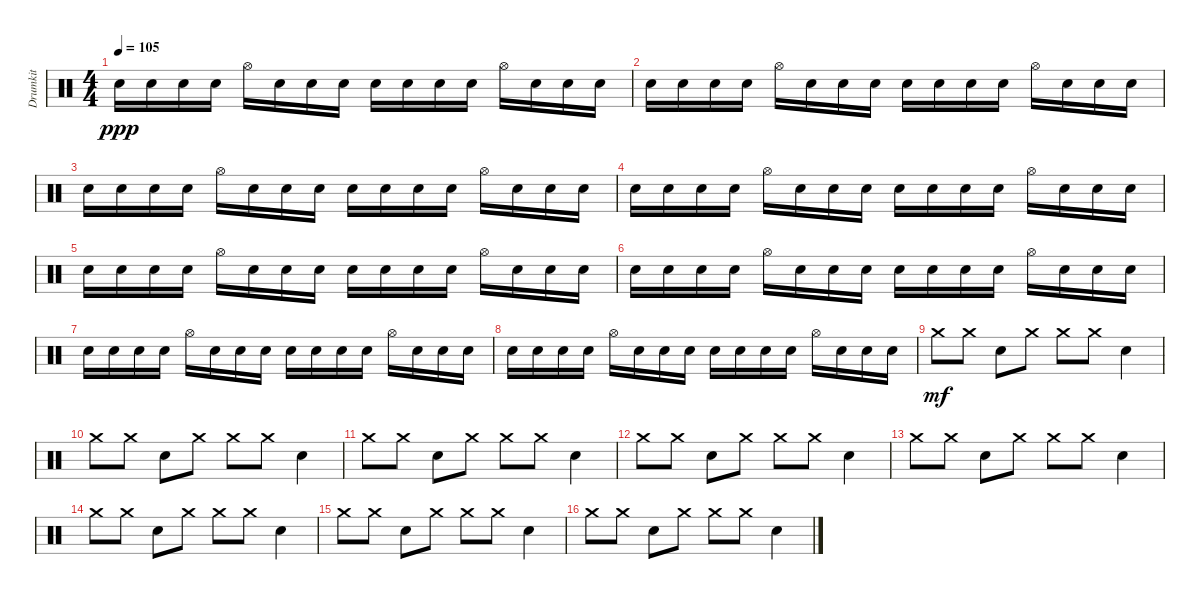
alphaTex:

\track ("Drumkit" "Drumkit") {instrument percussion}
\staff {score}
\articulation defaults
\ts (4 4)
\tempo 105
\clef neutral
\ks c "Snare (hit) 2".16{dy ppp} "Snare (hit) 2".16 "Snare (hit) 2".16 "Snare (hit) 2".16 "Hi-Hat (open)".16 "Snare (hit) 2".16 "Snare (hit) 2".16 "Snare (hit) 2".16 "Snare (hit) 2".16 "Snare (hit) 2".16 "Snare (hit) 2".16 "Snare (hit) 2".16 "Hi-Hat (open)".16 "Snare (hit) 2".16 "Snare (hit) 2".16 "Snare (hit) 2".16
|
"Snare (hit) 2".16 "Snare (hit) 2".16 "Snare (hit) 2".16 "Snare (hit) 2".16 "Hi-Hat (open)".16 "Snare (hit) 2".16 "Snare (hit) 2".16 "Snare (hit) 2".16 "Snare (hit) 2".16 "Snare (hit) 2".16 "Snare (hit) 2".16 "Snare (hit) 2".16 "Hi-Hat (open)".16 "Snare (hit) 2".16 "Snare (hit) 2".16 "Snare (hit) 2".16 |
"Snare (hit) 2".16 "Snare (hit) 2".16 "Snare (hit) 2".16 "Snare (hit) 2".16 "Hi-Hat (open)".16 "Snare (hit) 2".16 "Snare (hit) 2".16 "Snare (hit) 2".16 "Snare (hit) 2".16 "Snare (hit) 2".16 "Snare (hit) 2".16 "Snare (hit) 2".16 "Hi-Hat (open)".16 "Snare (hit) 2".16 "Snare (hit) 2".16 "Snare (hit) 2".16 |
"Snare (hit) 2".16 "Snare (hit) 2".16 "Snare (hit) 2".16 "Snare (hit) 2".16 "Hi-Hat (open)".16 "Snare (hit) 2".16 "Snare (hit) 2".16 "Snare (hit) 2".16 "Snare (hit) 2".16 "Snare (hit) 2".16 "Snare (hit) 2".16 "Snare (hit) 2".16 "Hi-Hat (open)".16 "Snare (hit) 2".16 "Snare (hit) 2".16 "Snare (hit) 2".16 |
"Snare (hit) 2".16 "Snare (hit) 2".16 "Snare (hit) 2".16 "Snare (hit) 2".16 "Hi-Hat (open)".16 "Snare (hit) 2".16 "Snare (hit) 2".16 "Snare (hit) 2".16 "Snare (hit) 2".16 "Snare (hit) 2".16 "Snare (hit) 2".16 "Snare (hit) 2".16 "Hi-Hat (open)".16 "Snare (hit) 2".16 "Snare (hit) 2".16 "Snare (hit) 2".16 |
"Snare (hit) 2".16 "Snare (hit) 2".16 "Snare (hit) 2".16 "Snare (hit) 2".16 "Hi-Hat (open)".16 "Snare (hit) 2".16 "Snare (hit) 2".16 "Snare (hit) 2".16 "Snare (hit) 2".16 "Snare (hit) 2".16 "Snare (hit) 2".16 "Snare (hit) 2".16 "Hi-Hat (open)".16 "Snare (hit) 2".16 "Snare (hit) 2".16 "Snare (hit) 2".16 |
"Snare (hit) 2".16 "Snare (hit) 2".16 "Snare (hit) 2".16 "Snare (hit) 2".16 "Hi-Hat (open)".16 "Snare (hit) 2".16 "Snare (hit) 2".16 "Snare (hit) 2".16 "Snare (hit) 2".16 "Snare (hit) 2".16 "Snare (hit) 2".16 "Snare (hit) 2".16 "Hi-Hat (open)".16 "Snare (hit) 2".16 "Snare (hit) 2".16 "Snare (hit) 2".16 |
"Snare (hit) 2".16 "Snare (hit) 2".16 "Snare (hit) 2".16 "Snare (hit) 2".16 "Hi-Hat (open)".16 "Snare (hit) 2".16 "Snare (hit) 2".16 "Snare (hit) 2".16 "Snare (hit) 2".16 "Snare (hit) 2".16 "Snare (hit) 2".16 "Snare (hit) 2".16 "Hi-Hat (open)".16 "Snare (hit) 2".16 "Snare (hit) 2".16 "Snare (hit) 2".16 |
"Crash medium (hit)".8{dy mf} "Crash medium (hit)".8 "Snare (hit) 2".8 "Crash medium (hit)".8 "Crash medium (hit)".8 "Crash medium (hit)".8 "Snare (hit) 2".4 |
"Crash medium (hit)".8 "Crash medium (hit)".8 "Snare (hit) 2".8 "Crash medium (hit)".8 "Crash medium (hit)".8 "Crash medium (hit)".8 "Snare (hit) 2".4 |
"Crash medium (hit)".8 "Crash medium (hit)".8 "Snare (hit) 2".8 "Crash medium (hit)".8 "Crash medium (hit)".8 "Crash medium (hit)".8 "Snare (hit) 2".4 |
"Crash medium (hit)".8 "Crash medium (hit)".8 "Snare (hit) 2".8 "Crash medium (hit)".8 "Crash medium (hit)".8 "Crash medium (hit)".8 "Snare (hit) 2".4 |
"Crash medium (hit)".8 "Crash medium (hit)".8 "Snare (hit) 2".8 "Crash medium (hit)".8 "Crash medium (hit)".8 "Crash medium (hit)".8 "Snare (hit) 2".4 |
"Crash medium (hit)".8 "Crash medium (hit)".8 "Snare (hit) 2".8 "Crash medium (hit)".8 "Crash medium (hit)".8 "Crash medium (hit)".8 "Snare (hit) 2".4 |
"Crash medium (hit)".8 "Crash medium (hit)".8 "Snare (hit) 2".8 "Crash medium (hit)".8 "Crash medium (hit)".8 "Crash medium (hit)".8 "Snare (hit) 2".4 |
"Crash medium (hit)".8 "Crash medium (hit)".8 "Snare (hit) 2".8 "Crash medium (hit)".8 "Crash medium (hit)".8 "Crash medium (hit)".8 "Snare (hit) 2".4
